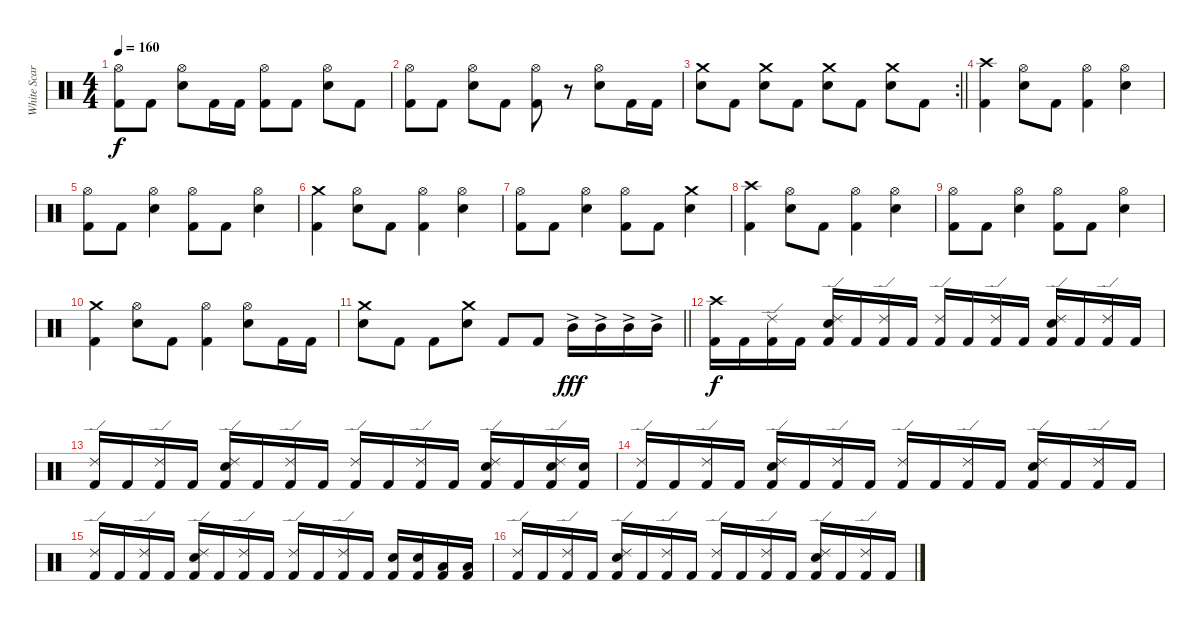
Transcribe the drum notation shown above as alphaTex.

\track ("White Scar" "White Scar") {instrument percussion}
\staff {score}
\articulation defaults
\ts (4 4)
\tempo 160
\clef neutral
\ks c
("Hi-Hat (open)" "Kick (hit) 2").8{dy f} "Kick (hit) 2".8 ("Hi-Hat (open)" "Snare (hit) 2").8 "Kick (hit) 2".16 "Kick (hit) 2".16 ("Hi-Hat (open)" "Kick (hit) 2").8 "Kick (hit) 2".8 ("Hi-Hat (open)" "Snare (hit) 2").8 "Kick (hit) 2".8 |
("Hi-Hat (open)" "Kick (hit) 2").8 "Kick (hit) 2".8 ("Hi-Hat (open)" "Snare (hit) 2").8 "Kick (hit) 2".8 ("Hi-Hat (open)" "Kick (hit) 2").8 r.8 ("Hi-Hat (open)" "Snare (hit) 2").8 "Kick (hit) 2".16 "Kick (hit) 2".16 |
\rc 2
\barLineRight lightlight
("Crash medium (hit)" "Snare (hit) 2").8 "Kick (hit) 2".8 ("Crash medium (hit)" "Snare (hit) 2").8 "Kick (hit) 2".8 ("Crash medium (hit)" "Snare (hit) 2").8 "Kick (hit) 2".8 ("Crash medium (hit)" "Snare (hit) 2").8 "Kick (hit) 2".8 |
("Crash high (hit)" "Kick (hit) 2").4 ("Hi-Hat (open)" "Snare (hit) 2").8 "Kick (hit) 2".8 ("Hi-Hat (open)" "Kick (hit) 2").4 ("Hi-Hat (open)" "Snare (hit) 2").4 |
("Hi-Hat (open)" "Kick (hit) 2").8 "Kick (hit) 2".8 ("Hi-Hat (open)" "Snare (hit) 2").4 ("Hi-Hat (open)" "Kick (hit) 2").8 "Kick (hit) 2".8 ("Hi-Hat (open)" "Snare (hit) 2").4 |
("Crash medium (hit)" "Kick (hit) 2").4 ("Hi-Hat (open)" "Snare (hit) 2").8 "Kick (hit) 2".8 ("Hi-Hat (open)" "Kick (hit) 2").4 ("Hi-Hat (open)" "Snare (hit) 2").4 |
("Hi-Hat (open)" "Kick (hit) 2").8 "Kick (hit) 2".8 ("Hi-Hat (open)" "Snare (hit) 2").4 ("Hi-Hat (open)" "Kick (hit) 2").8 "Kick (hit) 2".8 ("Crash medium (hit)" "Snare (hit) 2").4 |
("Crash high (hit)" "Kick (hit) 2").4 ("Hi-Hat (open)" "Snare (hit) 2").8 "Kick (hit) 2".8 ("Hi-Hat (open)" "Kick (hit) 2").4 ("Hi-Hat (open)" "Snare (hit) 2").4 |
("Hi-Hat (open)" "Kick (hit) 2").8 "Kick (hit) 2".8 ("Hi-Hat (open)" "Snare (hit) 2").4 ("Hi-Hat (open)" "Kick (hit) 2").8 "Kick (hit) 2".8 ("Hi-Hat (open)" "Snare (hit) 2").4 |
("Crash medium (hit)" "Kick (hit) 2").4 ("Hi-Hat (open)" "Snare (hit) 2").8 "Kick (hit) 2".8 ("Hi-Hat (open)" "Kick (hit) 2").4 ("Hi-Hat (open)" "Snare (hit) 2").8 "Kick (hit) 2".16 "Kick (hit) 2".16 |
\barLineRight lightlight
("Crash medium (hit)" "Snare (hit) 2").8 "Kick (hit) 2".8 "Kick (hit) 2".8 ("Crash medium (hit)" "Snare (hit) 2").8 "Kick (hit) 2".8 "Kick (hit) 2".8 "Mid Tom (hit)"{ac}.16{dy fff} "Mid Tom (hit)"{ac}.16 "Mid Tom (hit)"{ac}.16 "Mid Tom (hit)"{ac}.16 |
("Crash high (hit)" "Kick (hit) 2").16{dy f} "Kick (hit) 2".16 ("Ride (edge) 2" "Kick (hit) 2").16 "Kick (hit) 2".16 ("Ride (edge) 2" "Snare (hit) 2" "Kick (hit) 2").16 "Kick (hit) 2".16 ("Ride (edge) 2" "Kick (hit) 2").16 "Kick (hit) 2".16 ("Ride (edge) 2" "Kick (hit) 2").16 "Kick (hit) 2".16 ("Ride (edge) 2" "Kick (hit) 2").16 "Kick (hit) 2".16 ("Ride (edge) 2" "Snare (hit) 2" "Kick (hit) 2").16 "Kick (hit) 2".16 ("Ride (edge) 2" "Kick (hit) 2").16 "Kick (hit) 2".16 |
("Ride (edge) 2" "Kick (hit) 2").16 "Kick (hit) 2".16 ("Ride (edge) 2" "Kick (hit) 2").16 "Kick (hit) 2".16 ("Ride (edge) 2" "Snare (hit) 2" "Kick (hit) 2").16 "Kick (hit) 2".16 ("Ride (edge) 2" "Kick (hit) 2").16 "Kick (hit) 2".16 ("Ride (edge) 2" "Kick (hit) 2").16 "Kick (hit) 2".16 ("Ride (edge) 2" "Kick (hit) 2").16 "Kick (hit) 2".16 ("Ride (edge) 2" "Snare (hit) 2" "Kick (hit) 2").16 "Kick (hit) 2".16 ("Ride (edge) 2" "Snare (hit) 2" "Kick (hit) 2").16 ("Snare (hit) 2" "Kick (hit) 2").16 |
("Ride (edge) 2" "Kick (hit) 2").16 "Kick (hit) 2".16 ("Ride (edge) 2" "Kick (hit) 2").16 "Kick (hit) 2".16 ("Ride (edge) 2" "Snare (hit) 2" "Kick (hit) 2").16 "Kick (hit) 2".16 ("Ride (edge) 2" "Kick (hit) 2").16 "Kick (hit) 2".16 ("Ride (edge) 2" "Kick (hit) 2").16 "Kick (hit) 2".16 ("Ride (edge) 2" "Kick (hit) 2").16 "Kick (hit) 2".16 ("Ride (edge) 2" "Snare (hit) 2" "Kick (hit) 2").16 "Kick (hit) 2".16 ("Ride (edge) 2" "Kick (hit) 2").16 "Kick (hit) 2".16 |
("Ride (edge) 2" "Kick (hit) 2").16 "Kick (hit) 2".16 ("Ride (edge) 2" "Kick (hit) 2").16 "Kick (hit) 2".16 ("Ride (edge) 2" "Snare (hit) 2" "Kick (hit) 2").16 "Kick (hit) 2".16 ("Ride (edge) 2" "Kick (hit) 2").16 "Kick (hit) 2".16 ("Ride (edge) 2" "Kick (hit) 2").16 "Kick (hit) 2".16 ("Ride (edge) 2" "Kick (hit) 2").16 "Kick (hit) 2".16 ("Snare (hit) 2" "Kick (hit) 2").16 ("Snare (hit) 2" "Kick (hit) 2").16 ("Low Tom (hit)" "Kick (hit) 2").16 ("Low Tom (hit)" "Kick (hit) 2").16 |
("Ride (edge) 2" "Kick (hit) 2").16 "Kick (hit) 2".16 ("Ride (edge) 2" "Kick (hit) 2").16 "Kick (hit) 2".16 ("Ride (edge) 2" "Snare (hit) 2" "Kick (hit) 2").16 "Kick (hit) 2".16 ("Ride (edge) 2" "Kick (hit) 2").16 "Kick (hit) 2".16 ("Ride (edge) 2" "Kick (hit) 2").16 "Kick (hit) 2".16 ("Ride (edge) 2" "Kick (hit) 2").16 "Kick (hit) 2".16 ("Ride (edge) 2" "Snare (hit) 2" "Kick (hit) 2").16 "Kick (hit) 2".16 ("Ride (edge) 2" "Kick (hit) 2").16 "Kick (hit) 2".16
